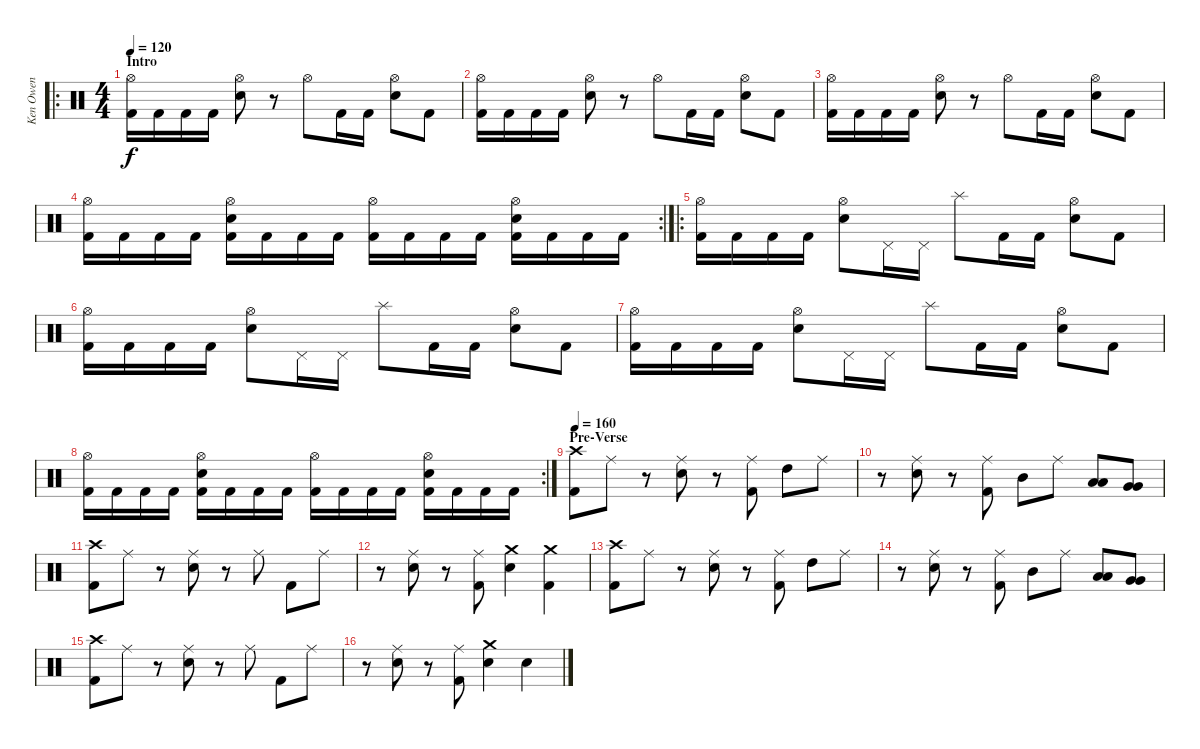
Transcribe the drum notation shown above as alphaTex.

\track ("Ken Owen" "Ken Owen") {instrument percussion}
\staff {score}
\articulation defaults
\ro
\ts (4 4)
\section ("" "Intro")
\tempo 120
\tempo 145
\tempo 120
\clef neutral
\ks c
("Hi-Hat (open)" "Kick (hit) 2").16{dy f} "Kick (hit) 2".16 "Kick (hit) 2".16 "Kick (hit) 2".16 ("Hi-Hat (open)" "Electric Snare (hit)").8 r.8 "Hi-Hat (open)".8 "Kick (hit) 2".16 "Kick (hit) 2".16 ("Hi-Hat (open)" "Electric Snare (hit)").8 "Kick (hit) 2".8 |
("Hi-Hat (open)" "Kick (hit) 2").16 "Kick (hit) 2".16 "Kick (hit) 2".16 "Kick (hit) 2".16 ("Hi-Hat (open)" "Electric Snare (hit)").8 r.8 "Hi-Hat (open)".8 "Kick (hit) 2".16 "Kick (hit) 2".16 ("Hi-Hat (open)" "Electric Snare (hit)").8 "Kick (hit) 2".8 |
("Hi-Hat (open)" "Kick (hit) 2").16 "Kick (hit) 2".16 "Kick (hit) 2".16 "Kick (hit) 2".16 ("Hi-Hat (open)" "Electric Snare (hit)").8 r.8 "Hi-Hat (open)".8 "Kick (hit) 2".16 "Kick (hit) 2".16 ("Hi-Hat (open)" "Electric Snare (hit)").8 "Kick (hit) 2".8 |
\rc 2
("Hi-Hat (open)" "Kick (hit) 2").16 "Kick (hit) 2".16 "Kick (hit) 2".16 "Kick (hit) 2".16 ("Hi-Hat (open)" "Electric Snare (hit)" "Kick (hit) 2").16 "Kick (hit) 2".16 "Kick (hit) 2".16 "Kick (hit) 2".16 ("Hi-Hat (open)" "Kick (hit) 2").16 "Kick (hit) 2".16 "Kick (hit) 2".16 "Kick (hit) 2".16 ("Hi-Hat (open)" "Electric Snare (hit)" "Kick (hit) 2").16 "Kick (hit) 2".16 "Kick (hit) 2".16 "Kick (hit) 2".16 |
\ro
("Hi-Hat (open)" "Kick (hit) 2").16 "Kick (hit) 2".16 "Kick (hit) 2".16 "Kick (hit) 2".16 ("Hi-Hat (open)" "Electric Snare (hit)").8 "Pedal Hi-Hat (hit)".16 "Pedal Hi-Hat (hit)".16 "Splash (hit)".8 "Kick (hit) 2".16 "Kick (hit) 2".16 ("Hi-Hat (open)" "Electric Snare (hit)").8 "Kick (hit) 2".8 |
("Hi-Hat (open)" "Kick (hit) 2").16 "Kick (hit) 2".16 "Kick (hit) 2".16 "Kick (hit) 2".16 ("Hi-Hat (open)" "Electric Snare (hit)").8 "Pedal Hi-Hat (hit)".16 "Pedal Hi-Hat (hit)".16 "Splash (hit)".8 "Kick (hit) 2".16 "Kick (hit) 2".16 ("Hi-Hat (open)" "Electric Snare (hit)").8 "Kick (hit) 2".8 |
("Hi-Hat (open)" "Kick (hit) 2").16 "Kick (hit) 2".16 "Kick (hit) 2".16 "Kick (hit) 2".16 ("Hi-Hat (open)" "Electric Snare (hit)").8 "Pedal Hi-Hat (hit)".16 "Pedal Hi-Hat (hit)".16 "Splash (hit)".8 "Kick (hit) 2".16 "Kick (hit) 2".16 ("Hi-Hat (open)" "Electric Snare (hit)").8 "Kick (hit) 2".8 |
\rc 2
("Hi-Hat (open)" "Kick (hit) 2").16 "Kick (hit) 2".16 "Kick (hit) 2".16 "Kick (hit) 2".16 ("Hi-Hat (open)" "Electric Snare (hit)" "Kick (hit) 2").16 "Kick (hit) 2".16 "Kick (hit) 2".16 "Kick (hit) 2".16 ("Hi-Hat (open)" "Kick (hit) 2").16 "Kick (hit) 2".16 "Kick (hit) 2".16 "Kick (hit) 2".16 ("Hi-Hat (open)" "Electric Snare (hit)" "Kick (hit) 2").16 "Kick (hit) 2".16 "Kick (hit) 2".16 "Kick (hit) 2".16 |
\section ("" "Pre-Verse")
\tempo 160
("Crash high (hit)" "Kick (hit) 2").8 "Ride (middle)".8 r.8 ("Ride (middle)" "Electric Snare (hit)").8 r.8 ("Ride (middle)" "Kick (hit) 2").8 "High Tom (hit)".8 "Ride (middle)".8 |
r.8 ("Ride (middle)" "Electric Snare (hit)").8 r.8 ("Ride (middle)" "Kick (hit) 2").8 "Mid Tom (hit)".8 "Ride (middle)".8 ("Low Tom (hit)" "Low Tom (hit)").8 ("Very Low Tom (hit)" "Very Low Tom (hit)").8 |
("Crash high (hit)" "Kick (hit) 2").8 "Ride (middle)".8 r.8 ("Ride (middle)" "Electric Snare (hit)").8 r.8 "Ride (middle)".8 "Kick (hit) 2".8 "Ride (middle)".8 |
r.8 ("Ride (middle)" "Electric Snare (hit)").8 r.8 ("Ride (middle)" "Kick (hit) 2").8 ("Crash medium (hit)" "Electric Snare (hit)").4 ("Crash medium (hit)" "Kick (hit) 2").4 |
("Crash high (hit)" "Kick (hit) 2").8 "Ride (middle)".8 r.8 ("Ride (middle)" "Electric Snare (hit)").8 r.8 ("Ride (middle)" "Kick (hit) 2").8 "High Tom (hit)".8 "Ride (middle)".8 |
r.8 ("Ride (middle)" "Electric Snare (hit)").8 r.8 ("Ride (middle)" "Kick (hit) 2").8 "Mid Tom (hit)".8 "Ride (middle)".8 ("Low Tom (hit)" "Low Tom (hit)").8 ("Very Low Tom (hit)" "Very Low Tom (hit)").8 |
("Crash high (hit)" "Kick (hit) 2").8 "Ride (middle)".8 r.8 ("Ride (middle)" "Electric Snare (hit)").8 r.8 "Ride (middle)".8 "Kick (hit) 2".8 "Ride (middle)".8 |
r.8 ("Ride (middle)" "Electric Snare (hit)").8 r.8 ("Ride (middle)" "Kick (hit) 2").8 ("Crash medium (hit)" "Electric Snare (hit)").4 "Electric Snare (hit)".4
